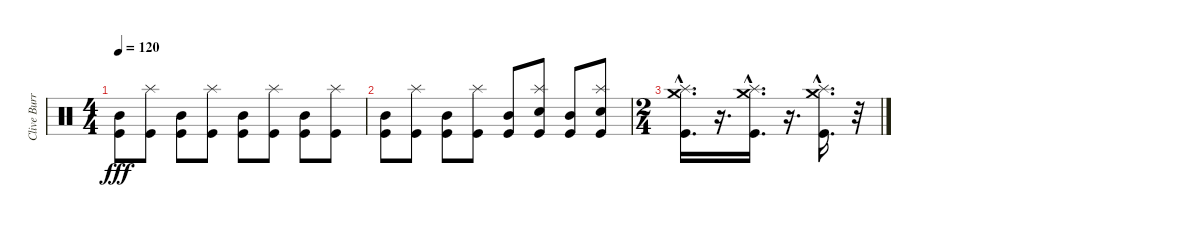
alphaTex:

\track ("Clive Burr" "Clive Burr") {instrument percussion}
\staff {score}
\articulation defaults
\ts (4 4)
\tempo 120
\clef neutral
\ks c
("Kick (hit)" "Mid Tom (hit)").8{dy fff} ("Kick (hit)" "Splash (hit)").8 ("Kick (hit)" "Mid Tom (hit)").8 ("Kick (hit)" "Splash (hit)").8 ("Kick (hit)" "Mid Tom (hit)").8 ("Kick (hit)" "Splash (hit)").8 ("Kick (hit)" "Mid Tom (hit)").8 ("Kick (hit)" "Splash (hit)").8 |
("Kick (hit)" "Mid Tom (hit)").8 ("Kick (hit)" "Splash (hit)").8 ("Kick (hit)" "Mid Tom (hit)").8 ("Kick (hit)" "Splash (hit)").8 ("Kick (hit)" "Mid Tom (hit)").8 ("Kick (hit)" "Splash (hit)" "Electric Snare (hit)").8 ("Kick (hit)" "Mid Tom (hit)").8 ("Kick (hit)" "Splash (hit)" "Electric Snare (hit)").8 |
\ts (2 4)
("Kick (hit)"{hac} "Splash (hit)"{hac} "Crash medium (hit)"{hac}).16{d} r.16{d} ("Kick (hit)"{hac} "Splash (hit)"{hac} "Crash medium (hit)"{hac}).16{d} r.16{d} ("Kick (hit)"{hac} "Splash (hit)"{hac} "Crash medium (hit)"{hac}).16{d} r.32
